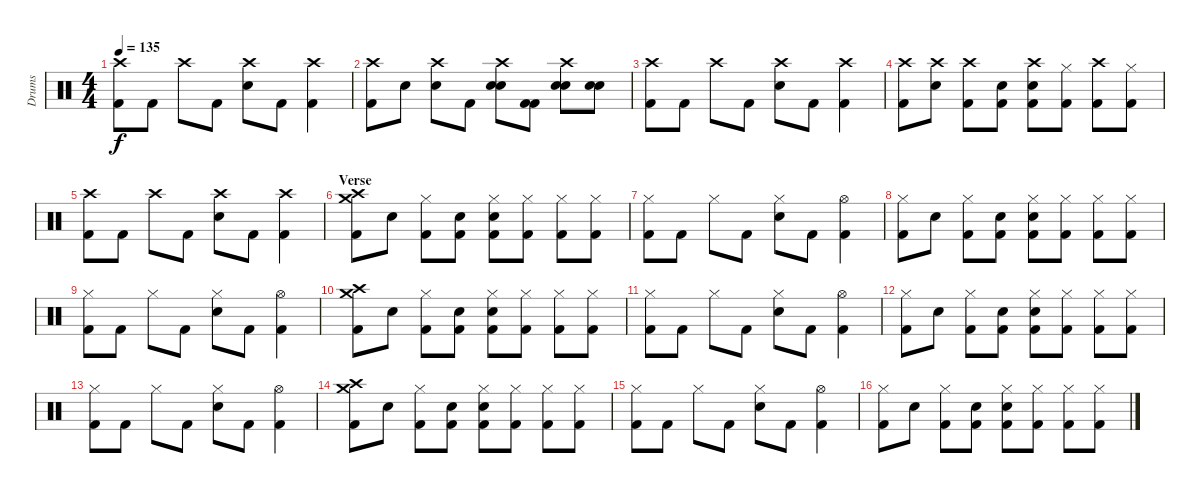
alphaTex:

\track ("Drums" "Drums") {instrument percussion}
\staff {score}
\articulation defaults
\ts (4 4)
\tempo 135
\clef neutral
\ks c
("Crash high (hit)" "Kick (hit) 2"{x}).8{dy f} "Kick (hit) 2"{x}.8 "Crash high (hit)".8 "Kick (hit) 2".8 ("Crash high (hit)" "Electric Snare (hit)").8 "Kick (hit) 2".8 ("Crash high (hit)" "Kick (hit) 2"{x}).4 |
("Crash high (hit)" "Kick (hit) 2").8 "Snare (hit)"{x}.8 ("Crash high (hit)" "Snare (hit)"{x}).8 "Kick (hit) 2".8 ("Crash high (hit)" "Snare (hit) 2" "Electric Snare (hit)").8 ("Kick (hit) 2" "Kick (hit) 2").8 ("Crash high (hit)" "Snare (hit) 2" "Electric Snare (hit)").8 ("Snare (hit) 2"{x} "Electric Snare (hit)"{x}).8 |
("Crash high (hit)" "Kick (hit) 2"{x}).8 "Kick (hit) 2"{x}.8 "Crash high (hit)".8 "Kick (hit) 2".8 ("Crash high (hit)" "Electric Snare (hit)").8 "Kick (hit) 2".8 ("Crash high (hit)" "Kick (hit) 2"{x}).4 |
("Crash high (hit)" "Kick (hit) 2").8 ("Crash high (hit)"{x} "Snare (hit)"{x}).8 ("Crash high (hit)" "Kick (hit) 2"{x}).8 ("Electric Snare (hit)"{x} "Kick (hit) 2").8 ("Crash high (hit)" "Electric Snare (hit)" "Kick (hit) 2"{x}).8 ("Hi-Hat (closed)"{x} "Kick (hit) 2"{x}).8 ("Crash high (hit)" "Kick (hit) 2").8 ("Hi-Hat (closed)"{x} "Kick (hit) 2").8 |
("Crash high (hit)" "Kick (hit) 2"{x}).8 "Kick (hit) 2"{x}.8 "Crash high (hit)".8 "Kick (hit) 2".8 ("Crash high (hit)" "Electric Snare (hit)").8 "Kick (hit) 2".8 ("Crash high (hit)" "Kick (hit) 2"{x}).4 |
\section ("" "Verse")
("Crash high (hit)" "Crash medium (hit)" "Kick (hit) 2").8 "Snare (hit)"{x}.8 ("Hi-Hat (closed)" "Kick (hit) 2"{x}).8 ("Electric Snare (hit)"{x} "Kick (hit) 2").8 ("Hi-Hat (closed)" "Electric Snare (hit)" "Kick (hit) 2"{x}).8 ("Hi-Hat (closed)"{x} "Kick (hit) 2"{x}).8 ("Hi-Hat (closed)" "Kick (hit) 2").8 ("Hi-Hat (closed)"{x} "Kick (hit) 2").8 |
("Hi-Hat (closed)" "Kick (hit) 2"{x}).8 "Kick (hit) 2"{x}.8 "Hi-Hat (closed)".8 "Kick (hit) 2".8 ("Hi-Hat (closed)" "Electric Snare (hit)").8 "Kick (hit) 2".8 ("Hi-Hat (open)" "Kick (hit) 2"{x}).4 |
("Hi-Hat (closed)" "Kick (hit) 2").8 "Snare (hit)"{x}.8 ("Hi-Hat (closed)" "Kick (hit) 2"{x}).8 ("Electric Snare (hit)"{x} "Kick (hit) 2").8 ("Hi-Hat (closed)" "Electric Snare (hit)" "Kick (hit) 2"{x}).8 ("Hi-Hat (closed)"{x} "Kick (hit) 2"{x}).8 ("Hi-Hat (closed)" "Kick (hit) 2").8 ("Hi-Hat (closed)"{x} "Kick (hit) 2").8 |
("Hi-Hat (closed)" "Kick (hit) 2"{x}).8 "Kick (hit) 2"{x}.8 "Hi-Hat (closed)".8 "Kick (hit) 2".8 ("Hi-Hat (closed)" "Electric Snare (hit)").8 "Kick (hit) 2".8 ("Hi-Hat (open)" "Kick (hit) 2"{x}).4 |
("Crash medium (hit)" "Crash high (hit)" "Kick (hit) 2").8 "Snare (hit)"{x}.8 ("Hi-Hat (closed)" "Kick (hit) 2"{x}).8 ("Electric Snare (hit)"{x} "Kick (hit) 2").8 ("Hi-Hat (closed)" "Electric Snare (hit)" "Kick (hit) 2"{x}).8 ("Hi-Hat (closed)"{x} "Kick (hit) 2"{x}).8 ("Hi-Hat (closed)" "Kick (hit) 2").8 ("Hi-Hat (closed)"{x} "Kick (hit) 2").8 |
("Hi-Hat (closed)" "Kick (hit) 2"{x}).8 "Kick (hit) 2"{x}.8 "Hi-Hat (closed)".8 "Kick (hit) 2".8 ("Hi-Hat (closed)" "Electric Snare (hit)").8 "Kick (hit) 2".8 ("Hi-Hat (open)" "Kick (hit) 2"{x}).4 |
("Hi-Hat (closed)" "Kick (hit) 2").8 "Snare (hit)"{x}.8 ("Hi-Hat (closed)" "Kick (hit) 2"{x}).8 ("Electric Snare (hit)"{x} "Kick (hit) 2").8 ("Hi-Hat (closed)" "Electric Snare (hit)" "Kick (hit) 2"{x}).8 ("Hi-Hat (closed)"{x} "Kick (hit) 2"{x}).8 ("Hi-Hat (closed)" "Kick (hit) 2").8 ("Hi-Hat (closed)"{x} "Kick (hit) 2").8 |
("Hi-Hat (closed)" "Kick (hit) 2"{x}).8 "Kick (hit) 2"{x}.8 "Hi-Hat (closed)".8 "Kick (hit) 2".8 ("Hi-Hat (closed)" "Electric Snare (hit)").8 "Kick (hit) 2".8 ("Hi-Hat (open)" "Kick (hit) 2"{x}).4 |
("Crash medium (hit)" "Crash high (hit)" "Kick (hit) 2").8 "Snare (hit)"{x}.8 ("Hi-Hat (closed)" "Kick (hit) 2"{x}).8 ("Electric Snare (hit)"{x} "Kick (hit) 2").8 ("Hi-Hat (closed)" "Electric Snare (hit)" "Kick (hit) 2"{x}).8 ("Hi-Hat (closed)"{x} "Kick (hit) 2"{x}).8 ("Hi-Hat (closed)" "Kick (hit) 2").8 ("Hi-Hat (closed)"{x} "Kick (hit) 2").8 |
("Hi-Hat (closed)" "Kick (hit) 2"{x}).8 "Kick (hit) 2"{x}.8 "Hi-Hat (closed)".8 "Kick (hit) 2".8 ("Hi-Hat (closed)" "Electric Snare (hit)").8 "Kick (hit) 2".8 ("Hi-Hat (open)" "Kick (hit) 2"{x}).4 |
("Hi-Hat (closed)" "Kick (hit) 2").8 "Snare (hit)"{x}.8 ("Hi-Hat (closed)" "Kick (hit) 2"{x}).8 ("Electric Snare (hit)"{x} "Kick (hit) 2").8 ("Hi-Hat (closed)" "Electric Snare (hit)" "Kick (hit) 2"{x}).8 ("Hi-Hat (closed)"{x} "Kick (hit) 2"{x}).8 ("Hi-Hat (closed)" "Kick (hit) 2").8 ("Hi-Hat (closed)"{x} "Kick (hit) 2").8
